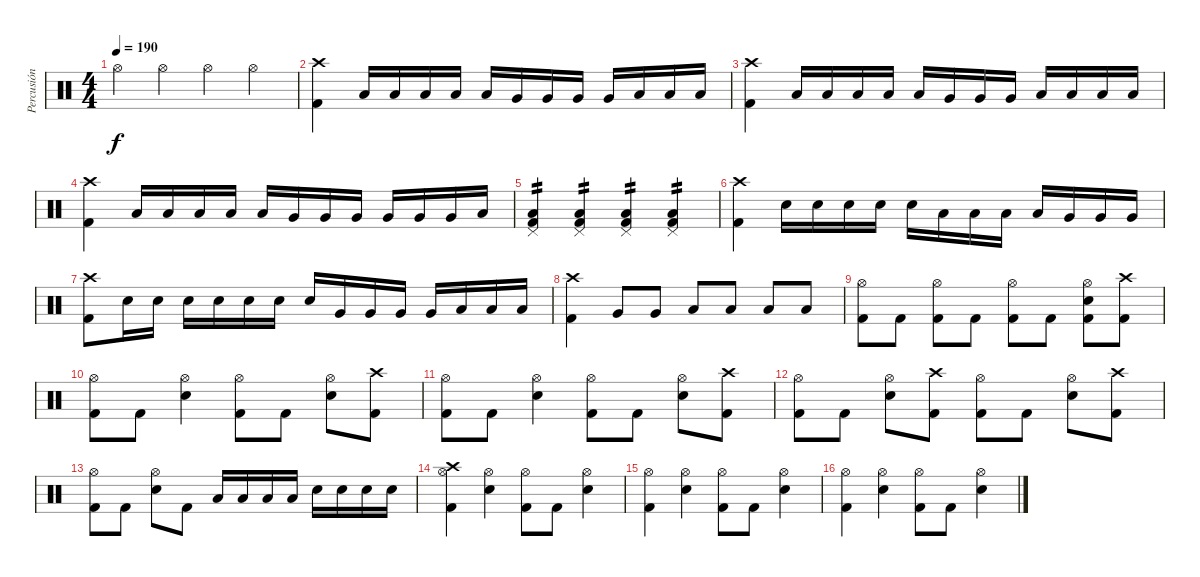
\track ("Percusión" "Percusión") {instrument percussion}
\staff {score}
\articulation defaults
\ts (4 4)
\tempo 190
\clef neutral
\ks c "Hi-Hat (open)".4{dy f} "Hi-Hat (open)".4 "Hi-Hat (open)".4 "Hi-Hat (open)".4
|
("Crash high (hit)" "Kick (hit) 2").4 "Low Tom (hit)".16 "Low Tom (hit)".16 "Low Tom (hit)".16 "Low Tom (hit)".16 "Low Tom (hit)".16 "Very Low Tom (hit)".16 "Very Low Tom (hit)".16 "Very Low Tom (hit)".16 "Very Low Tom (hit)".16 "Low Floor Tom (hit)".16 "Low Floor Tom (hit)".16 "Low Floor Tom (hit)".16 |
("Crash high (hit)" "Kick (hit) 2").4 "Low Tom (hit)".16 "Low Tom (hit)".16 "Low Tom (hit)".16 "Low Tom (hit)".16 "Low Tom (hit)".16 "Very Low Tom (hit)".16 "Very Low Tom (hit)".16 "Very Low Tom (hit)".16 "Low Floor Tom (hit)".16 "Low Floor Tom (hit)".16 "Low Floor Tom (hit)".16 "Low Floor Tom (hit)".16 |
("Crash high (hit)" "Kick (hit) 2").4 "Low Tom (hit)".16 "Low Tom (hit)".16 "Low Tom (hit)".16 "Low Tom (hit)".16 "Low Tom (hit)".16 "Very Low Tom (hit)".16 "Very Low Tom (hit)".16 "Very Low Tom (hit)".16 "Very Low Tom (hit)".16 "Very Low Tom (hit)".16 "Very Low Tom (hit)".16 "Low Floor Tom (hit)".16 |
("Kick (hit) 2" "Low Floor Tom (hit)" "Pedal Hi-Hat (hit)").4{tp 2} ("Kick (hit) 2" "Low Floor Tom (hit)" "Pedal Hi-Hat (hit)").4{tp 2} ("Kick (hit) 2" "Low Floor Tom (hit)" "Pedal Hi-Hat (hit)").4{tp 2} ("Kick (hit) 2" "Low Floor Tom (hit)" "Pedal Hi-Hat (hit)").4{tp 2} |
("Crash high (hit)" "Kick (hit) 2").4 "Electric Snare (hit)".16 "Electric Snare (hit)".16 "Electric Snare (hit)".16 "Electric Snare (hit)".16 "Electric Snare (hit)".16 "Low Tom (hit)".16 "Low Tom (hit)".16 "Low Tom (hit)".16 "Low Tom (hit)".16 "Very Low Tom (hit)".16 "Very Low Tom (hit)".16 "Very Low Tom (hit)".16 |
("Crash high (hit)" "Kick (hit) 2").8 "Electric Snare (hit)".16 "Electric Snare (hit)".16 "Electric Snare (hit)".16 "Electric Snare (hit)".16 "Electric Snare (hit)".16 "Electric Snare (hit)".16 "Electric Snare (hit)".16 "Very Low Tom (hit)".16 "Very Low Tom (hit)".16 "Very Low Tom (hit)".16 "Very Low Tom (hit)".16 "Low Floor Tom (hit)".16 "Low Floor Tom (hit)".16 "Low Floor Tom (hit)".16 |
("Crash high (hit)" "Kick (hit) 2").4 "Very Low Tom (hit)".8 "Very Low Tom (hit)".8 "Low Floor Tom (hit)".8 "Low Floor Tom (hit)".8 "Low Floor Tom (hit)".8 "Low Floor Tom (hit)".8 |
("Hi-Hat (open)" "Kick (hit) 2").8 "Kick (hit) 2".8 ("Hi-Hat (open)" "Kick (hit) 2").8 "Kick (hit) 2".8 ("Hi-Hat (open)" "Kick (hit) 2").8 "Kick (hit) 2".8 ("Hi-Hat (open)" "Electric Snare (hit)" "Kick (hit) 2").8 ("Crash high (hit)" "Kick (hit) 2").8 |
("Hi-Hat (open)" "Kick (hit) 2").8 "Kick (hit) 2".8 ("Hi-Hat (open)" "Electric Snare (hit)").4 ("Hi-Hat (open)" "Kick (hit) 2").8 "Kick (hit) 2".8 ("Hi-Hat (open)" "Electric Snare (hit)").8 ("Kick (hit) 2" "Crash high (hit)").8 |
("Hi-Hat (open)" "Kick (hit) 2").8 "Kick (hit) 2".8 ("Hi-Hat (open)" "Electric Snare (hit)").4 ("Hi-Hat (open)" "Kick (hit) 2").8 "Kick (hit) 2".8 ("Hi-Hat (open)" "Electric Snare (hit)").8 ("Kick (hit) 2" "Crash high (hit)").8 |
("Hi-Hat (open)" "Kick (hit) 2").8 "Kick (hit) 2".8 ("Hi-Hat (open)" "Electric Snare (hit)").8 ("Kick (hit) 2" "Crash high (hit)").8 ("Hi-Hat (open)" "Kick (hit) 2").8 "Kick (hit) 2".8 ("Hi-Hat (open)" "Electric Snare (hit)").8 ("Kick (hit) 2" "Crash high (hit)").8 |
("Hi-Hat (open)" "Kick (hit) 2").8 "Kick (hit) 2".8 ("Hi-Hat (open)" "Electric Snare (hit)").8 "Kick (hit) 2".8 "Low Tom (hit)".16 "Low Tom (hit)".16 "Low Tom (hit)".16 "Low Tom (hit)".16 "Electric Snare (hit)".16 "Electric Snare (hit)".16 "Electric Snare (hit)".16 "Electric Snare (hit)".16 |
("Crash high (hit)" "Hi-Hat (open)" "Kick (hit) 2").4 ("Hi-Hat (open)" "Electric Snare (hit)").4 ("Hi-Hat (open)" "Kick (hit) 2").8 "Kick (hit) 2".8 ("Hi-Hat (open)" "Electric Snare (hit)").4 |
("Hi-Hat (open)" "Kick (hit) 2").4 ("Hi-Hat (open)" "Electric Snare (hit)").4 ("Hi-Hat (open)" "Kick (hit) 2").8 "Kick (hit) 2".8 ("Hi-Hat (open)" "Electric Snare (hit)").4 |
("Hi-Hat (open)" "Kick (hit) 2").4 ("Hi-Hat (open)" "Electric Snare (hit)").4 ("Hi-Hat (open)" "Kick (hit) 2").8 "Kick (hit) 2".8 ("Hi-Hat (open)" "Electric Snare (hit)").4
